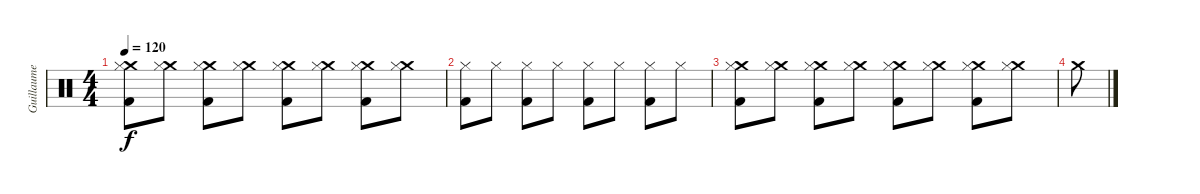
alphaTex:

\track ("Guillaume (batterie)" "Guillaume ") {instrument percussion}
\staff {score}
\articulation defaults
\ts (4 4)
\tempo 120
\clef neutral
\ks c
("Crash medium (hit)" "Hi-Hat (closed)" "Kick (hit) 2").8{dy f volume 9} ("Crash medium (hit)" "Hi-Hat (closed)").8 ("Crash medium (hit)" "Hi-Hat (closed)" "Kick (hit) 2").8{volume 11} ("Crash medium (hit)" "Hi-Hat (closed)").8 ("Crash medium (hit)" "Hi-Hat (closed)" "Kick (hit) 2").8{volume 12} ("Crash medium (hit)" "Hi-Hat (closed)").8 ("Crash medium (hit)" "Hi-Hat (closed)" "Kick (hit) 2").8{volume 15} ("Crash medium (hit)" "Hi-Hat (closed)").8 |
("Hi-Hat (closed)" "Kick (hit) 2").8{volume 9} "Hi-Hat (closed)".8 ("Hi-Hat (closed)" "Kick (hit) 2").8 "Hi-Hat (closed)".8 ("Hi-Hat (closed)" "Kick (hit) 2").8 "Hi-Hat (closed)".8 ("Hi-Hat (closed)" "Kick (hit) 2").8 "Hi-Hat (closed)".8 |
("Crash medium (hit)" "Hi-Hat (closed)" "Kick (hit) 2").8{volume 9} ("Crash medium (hit)" "Hi-Hat (closed)").8 ("Crash medium (hit)" "Hi-Hat (closed)" "Kick (hit) 2").8{volume 11} ("Crash medium (hit)" "Hi-Hat (closed)").8 ("Crash medium (hit)" "Hi-Hat (closed)" "Kick (hit) 2").8{volume 12} ("Crash medium (hit)" "Hi-Hat (closed)").8 ("Crash medium (hit)" "Hi-Hat (closed)" "Kick (hit) 2").8{volume 15} ("Crash medium (hit)" "Hi-Hat (closed)").8 |
"Crash medium (hit)".8
